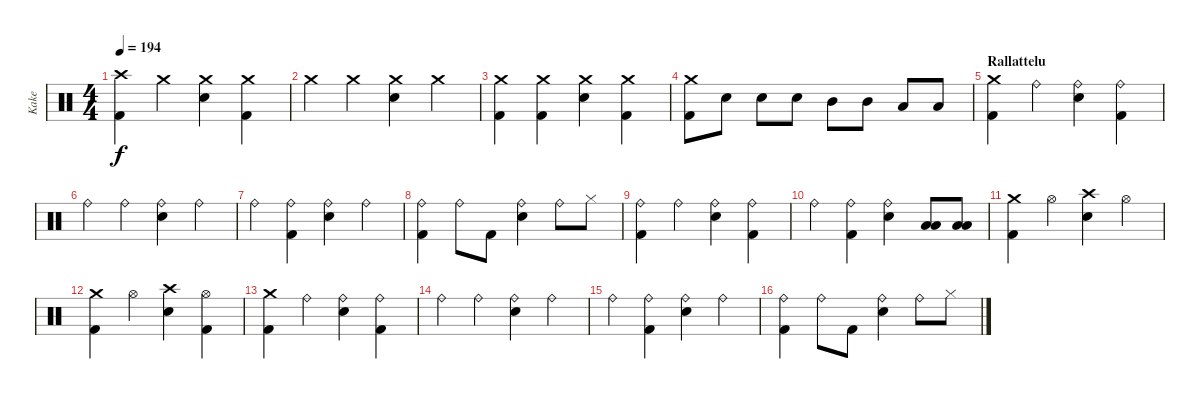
\track ("Kake" "Kake") {instrument percussion}
\staff {score}
\articulation defaults
\ts (4 4)
\tempo 194
\clef neutral
\ks c
("Crash high (hit)" "Kick (hit) 2").4{dy f} "Crash medium (hit)".4 ("Crash medium (hit)" "Electric Snare (hit)").4 ("Crash medium (hit)" "Kick (hit) 2").4 |
"Crash medium (hit)".4 "Crash medium (hit)".4 ("Crash medium (hit)" "Electric Snare (hit)").4 "Crash medium (hit)".4 |
("Crash medium (hit)" "Kick (hit) 2").4 ("Crash medium (hit)" "Kick (hit) 2").4 ("Crash medium (hit)" "Electric Snare (hit)").4 ("Crash medium (hit)" "Kick (hit) 2").4 |
("Crash medium (hit)" "Kick (hit) 2").8 "Electric Snare (hit)".8 "Electric Snare (hit)".8 "Electric Snare (hit)".8 "Mid Tom (hit)".8 "Mid Tom (hit)".8 "Low Tom (hit)".8 "Low Tom (hit)".8 |
\section ("" "Rallattelu")
("Crash medium (hit)" "Kick (hit) 2").4 "Ride (bell)".4 ("Ride (bell)" "Electric Snare (hit)").4 ("Ride (bell)" "Kick (hit) 2").4 |
"Ride (bell)".4 "Ride (bell)".4 ("Ride (bell)" "Electric Snare (hit)").4 "Ride (bell)".4 |
"Ride (bell)".4 ("Ride (bell)" "Kick (hit) 2").4 ("Ride (bell)" "Electric Snare (hit)").4 "Ride (bell)".4 |
("Ride (bell)" "Kick (hit) 2").4 "Ride (bell)".8 "Kick (hit) 2".8 ("Ride (bell)" "Electric Snare (hit)").4 "Ride (bell)".8 "Hi-Hat (closed)".8 |
("Ride (bell)" "Kick (hit) 2").4 "Ride (bell)".4 ("Ride (bell)" "Electric Snare (hit)").4 ("Ride (bell)" "Kick (hit) 2").4 |
"Ride (bell)".4 ("Ride (bell)" "Kick (hit) 2").4 ("Ride (bell)" "Electric Snare (hit)").4 ("Low Tom (hit)" "Low Floor Tom (hit)").8 ("Low Tom (hit)" "Low Floor Tom (hit)").8 |
("Crash medium (hit)" "Kick (hit) 2").4 "Hi-Hat (open)".4 ("Crash high (hit)" "Electric Snare (hit)").4 "Hi-Hat (open)".4 |
("Crash medium (hit)" "Kick (hit) 2").4 "Hi-Hat (open)".4 ("Crash high (hit)" "Electric Snare (hit)").4 ("Hi-Hat (open)" "Kick (hit) 2").4 |
("Crash medium (hit)" "Kick (hit) 2").4 "Ride (bell)".4 ("Ride (bell)" "Electric Snare (hit)").4 ("Ride (bell)" "Kick (hit) 2").4 |
"Ride (bell)".4 "Ride (bell)".4 ("Ride (bell)" "Electric Snare (hit)").4 "Ride (bell)".4 |
"Ride (bell)".4 ("Ride (bell)" "Kick (hit) 2").4 ("Ride (bell)" "Electric Snare (hit)").4 "Ride (bell)".4 |
("Ride (bell)" "Kick (hit) 2").4 "Ride (bell)".8 "Kick (hit) 2".8 ("Ride (bell)" "Electric Snare (hit)").4 "Ride (bell)".8 "Hi-Hat (closed)".8
